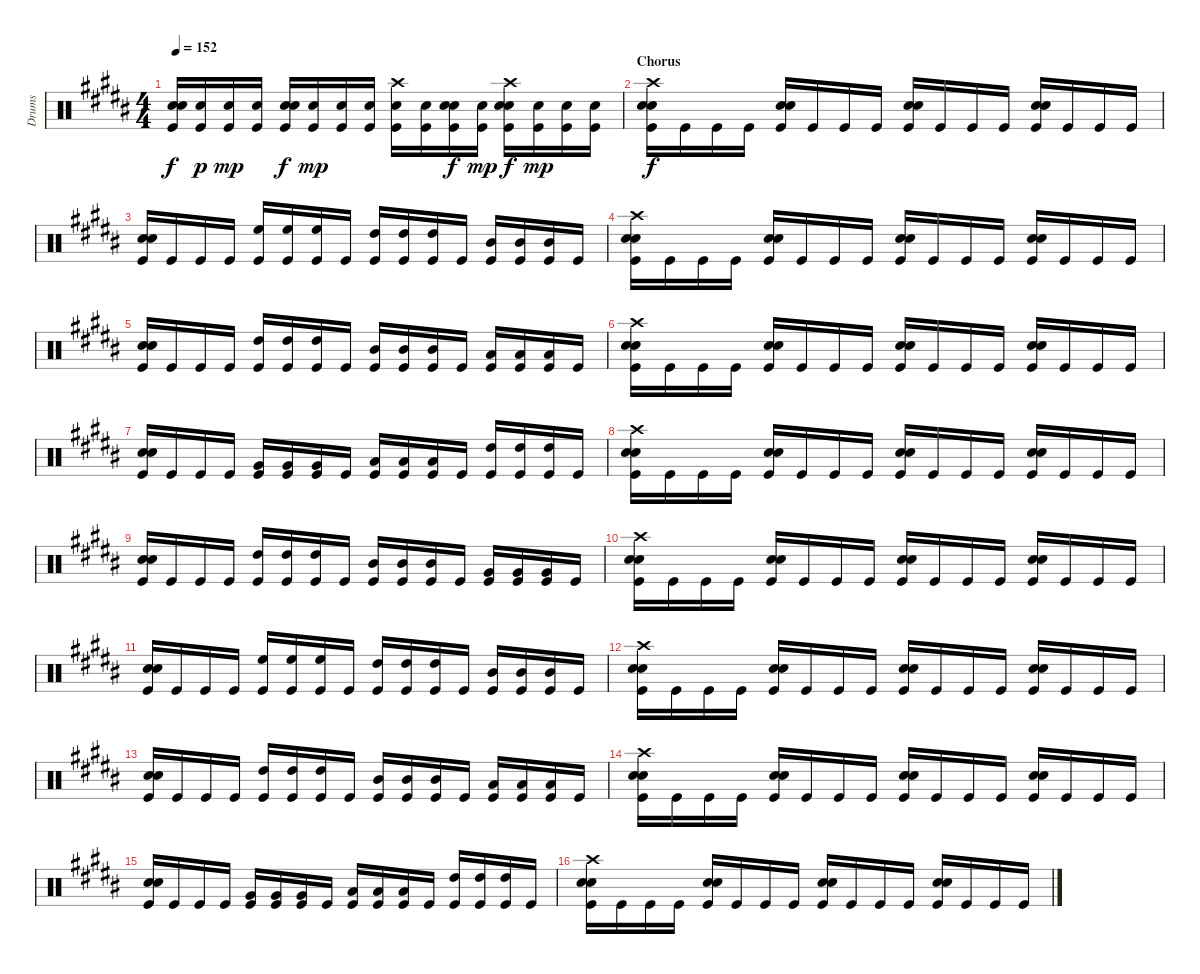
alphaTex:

\track ("Drums" "Drums") {instrument percussion}
\staff {score}
\articulation defaults
\ts (4 4)
\tempo 152
\clef neutral
\ks b
("Electric Snare (hit)" "Snare (hit) 2" "Kick (hit)").16{dy f} ("Snare (hit) 2" "Kick (hit)").16{dy p} ("Snare (hit) 2" "Kick (hit)").16{dy mp} ("Snare (hit) 2" "Kick (hit)").16 ("Electric Snare (hit)" "Snare (hit) 2" "Kick (hit)").16{dy f} ("Snare (hit) 2" "Kick (hit)").16{dy mp} ("Snare (hit) 2" "Kick (hit)").16 ("Snare (hit) 2" "Kick (hit)").16 ("Crash high (hit)" "Snare (hit) 2" "Kick (hit)").16 ("Snare (hit) 2" "Kick (hit)").16 ("Electric Snare (hit)" "Snare (hit) 2" "Kick (hit)").16{dy f} ("Snare (hit) 2" "Kick (hit)").16{dy mp} ("Crash high (hit)" "Electric Snare (hit)" "Snare (hit) 2" "Kick (hit)").16{dy f} ("Snare (hit) 2" "Kick (hit)").16{dy mp} ("Snare (hit) 2" "Kick (hit)").16 ("Snare (hit) 2" "Kick (hit)").16 |
\section ("" "Chorus")
("Crash high (hit)" "Snare (hit) 2" "Electric Snare (hit)" "Kick (hit)").16{dy f} "Kick (hit)".16 "Kick (hit)".16 "Kick (hit)".16 ("Snare (hit) 2" "Electric Snare (hit)" "Kick (hit)").16 "Kick (hit)".16 "Kick (hit)".16 "Kick (hit)".16 ("Snare (hit) 2" "Electric Snare (hit)" "Kick (hit)").16 "Kick (hit)".16 "Kick (hit)".16 "Kick (hit)".16 ("Snare (hit) 2" "Electric Snare (hit)" "Kick (hit)").16 "Kick (hit)".16 "Kick (hit)".16 "Kick (hit)".16 |
("Snare (hit) 2" "Electric Snare (hit)" "Kick (hit)").16 "Kick (hit)".16 "Kick (hit)".16 "Kick (hit)".16 ("High Floor Tom (hit)" "Kick (hit)").16 ("High Floor Tom (hit)" "Kick (hit)").16 ("High Floor Tom (hit)" "Kick (hit)").16 "Kick (hit)".16 ("High Tom (hit)" "Kick (hit)").16 ("High Tom (hit)" "Kick (hit)").16 ("High Tom (hit)" "Kick (hit)").16 "Kick (hit)".16 ("Mid Tom (hit)" "Kick (hit)").16 ("Mid Tom (hit)" "Kick (hit)").16 ("Mid Tom (hit)" "Kick (hit)").16 "Kick (hit)".16 |
("Crash high (hit)" "Snare (hit) 2" "Electric Snare (hit)" "Kick (hit)").16 "Kick (hit)".16 "Kick (hit)".16 "Kick (hit)".16 ("Snare (hit) 2" "Electric Snare (hit)" "Kick (hit)").16 "Kick (hit)".16 "Kick (hit)".16 "Kick (hit)".16 ("Snare (hit) 2" "Electric Snare (hit)" "Kick (hit)").16 "Kick (hit)".16 "Kick (hit)".16 "Kick (hit)".16 ("Snare (hit) 2" "Electric Snare (hit)" "Kick (hit)").16 "Kick (hit)".16 "Kick (hit)".16 "Kick (hit)".16 |
("Snare (hit) 2" "Electric Snare (hit)" "Kick (hit)").16 "Kick (hit)".16 "Kick (hit)".16 "Kick (hit)".16 ("High Tom (hit)" "Kick (hit)").16 ("High Tom (hit)" "Kick (hit)").16 ("High Tom (hit)" "Kick (hit)").16 "Kick (hit)".16 ("Mid Tom (hit)" "Kick (hit)").16 ("Mid Tom (hit)" "Kick (hit)").16 ("Mid Tom (hit)" "Kick (hit)").16 "Kick (hit)".16 ("Low Tom (hit)" "Kick (hit)").16 ("Low Tom (hit)" "Kick (hit)").16 ("Low Tom (hit)" "Kick (hit)").16 "Kick (hit)".16 |
("Crash high (hit)" "Snare (hit) 2" "Electric Snare (hit)" "Kick (hit)").16 "Kick (hit)".16 "Kick (hit)".16 "Kick (hit)".16 ("Snare (hit) 2" "Electric Snare (hit)" "Kick (hit)").16 "Kick (hit)".16 "Kick (hit)".16 "Kick (hit)".16 ("Snare (hit) 2" "Electric Snare (hit)" "Kick (hit)").16 "Kick (hit)".16 "Kick (hit)".16 "Kick (hit)".16 ("Snare (hit) 2" "Electric Snare (hit)" "Kick (hit)").16 "Kick (hit)".16 "Kick (hit)".16 "Kick (hit)".16 |
("Snare (hit) 2" "Electric Snare (hit)" "Kick (hit)").16 "Kick (hit)".16 "Kick (hit)".16 "Kick (hit)".16 ("Very Low Tom (hit)" "Kick (hit)").16 ("Very Low Tom (hit)" "Kick (hit)").16 ("Very Low Tom (hit)" "Kick (hit)").16 "Kick (hit)".16 ("Low Tom (hit)" "Kick (hit)").16 ("Low Tom (hit)" "Kick (hit)").16 ("Low Tom (hit)" "Kick (hit)").16 "Kick (hit)".16 ("High Tom (hit)" "Kick (hit)").16 ("High Tom (hit)" "Kick (hit)").16 ("High Tom (hit)" "Kick (hit)").16 "Kick (hit)".16 |
("Crash high (hit)" "Snare (hit) 2" "Electric Snare (hit)" "Kick (hit)").16 "Kick (hit)".16 "Kick (hit)".16 "Kick (hit)".16 ("Snare (hit) 2" "Electric Snare (hit)" "Kick (hit)").16 "Kick (hit)".16 "Kick (hit)".16 "Kick (hit)".16 ("Snare (hit) 2" "Electric Snare (hit)" "Kick (hit)").16 "Kick (hit)".16 "Kick (hit)".16 "Kick (hit)".16 ("Snare (hit) 2" "Electric Snare (hit)" "Kick (hit)").16 "Kick (hit)".16 "Kick (hit)".16 "Kick (hit)".16 |
("Snare (hit) 2" "Electric Snare (hit)" "Kick (hit)").16 "Kick (hit)".16 "Kick (hit)".16 "Kick (hit)".16 ("High Tom (hit)" "Kick (hit)").16 ("High Tom (hit)" "Kick (hit)").16 ("High Tom (hit)" "Kick (hit)").16 "Kick (hit)".16 ("Mid Tom (hit)" "Kick (hit)").16 ("Mid Tom (hit)" "Kick (hit)").16 ("Mid Tom (hit)" "Kick (hit)").16 "Kick (hit)".16 ("Very Low Tom (hit)" "Kick (hit)").16 ("Very Low Tom (hit)" "Kick (hit)").16 ("Very Low Tom (hit)" "Kick (hit)").16 "Kick (hit)".16 |
("Crash high (hit)" "Snare (hit) 2" "Electric Snare (hit)" "Kick (hit)").16 "Kick (hit)".16 "Kick (hit)".16 "Kick (hit)".16 ("Snare (hit) 2" "Electric Snare (hit)" "Kick (hit)").16 "Kick (hit)".16 "Kick (hit)".16 "Kick (hit)".16 ("Snare (hit) 2" "Electric Snare (hit)" "Kick (hit)").16 "Kick (hit)".16 "Kick (hit)".16 "Kick (hit)".16 ("Snare (hit) 2" "Electric Snare (hit)" "Kick (hit)").16 "Kick (hit)".16 "Kick (hit)".16 "Kick (hit)".16 |
("Snare (hit) 2" "Electric Snare (hit)" "Kick (hit)").16 "Kick (hit)".16 "Kick (hit)".16 "Kick (hit)".16 ("High Floor Tom (hit)" "Kick (hit)").16 ("High Floor Tom (hit)" "Kick (hit)").16 ("High Floor Tom (hit)" "Kick (hit)").16 "Kick (hit)".16 ("High Tom (hit)" "Kick (hit)").16 ("High Tom (hit)" "Kick (hit)").16 ("High Tom (hit)" "Kick (hit)").16 "Kick (hit)".16 ("Mid Tom (hit)" "Kick (hit)").16 ("Mid Tom (hit)" "Kick (hit)").16 ("Mid Tom (hit)" "Kick (hit)").16 "Kick (hit)".16 |
("Crash high (hit)" "Snare (hit) 2" "Electric Snare (hit)" "Kick (hit)").16 "Kick (hit)".16 "Kick (hit)".16 "Kick (hit)".16 ("Snare (hit) 2" "Electric Snare (hit)" "Kick (hit)").16 "Kick (hit)".16 "Kick (hit)".16 "Kick (hit)".16 ("Snare (hit) 2" "Electric Snare (hit)" "Kick (hit)").16 "Kick (hit)".16 "Kick (hit)".16 "Kick (hit)".16 ("Snare (hit) 2" "Electric Snare (hit)" "Kick (hit)").16 "Kick (hit)".16 "Kick (hit)".16 "Kick (hit)".16 |
("Snare (hit) 2" "Electric Snare (hit)" "Kick (hit)").16 "Kick (hit)".16 "Kick (hit)".16 "Kick (hit)".16 ("High Tom (hit)" "Kick (hit)").16 ("High Tom (hit)" "Kick (hit)").16 ("High Tom (hit)" "Kick (hit)").16 "Kick (hit)".16 ("Mid Tom (hit)" "Kick (hit)").16 ("Mid Tom (hit)" "Kick (hit)").16 ("Mid Tom (hit)" "Kick (hit)").16 "Kick (hit)".16 ("Low Tom (hit)" "Kick (hit)").16 ("Low Tom (hit)" "Kick (hit)").16 ("Low Tom (hit)" "Kick (hit)").16 "Kick (hit)".16 |
("Crash high (hit)" "Snare (hit) 2" "Electric Snare (hit)" "Kick (hit)").16 "Kick (hit)".16 "Kick (hit)".16 "Kick (hit)".16 ("Snare (hit) 2" "Electric Snare (hit)" "Kick (hit)").16 "Kick (hit)".16 "Kick (hit)".16 "Kick (hit)".16 ("Snare (hit) 2" "Electric Snare (hit)" "Kick (hit)").16 "Kick (hit)".16 "Kick (hit)".16 "Kick (hit)".16 ("Snare (hit) 2" "Electric Snare (hit)" "Kick (hit)").16 "Kick (hit)".16 "Kick (hit)".16 "Kick (hit)".16 |
("Snare (hit) 2" "Electric Snare (hit)" "Kick (hit)").16 "Kick (hit)".16 "Kick (hit)".16 "Kick (hit)".16 ("Very Low Tom (hit)" "Kick (hit)").16 ("Very Low Tom (hit)" "Kick (hit)").16 ("Very Low Tom (hit)" "Kick (hit)").16 "Kick (hit)".16 ("Low Tom (hit)" "Kick (hit)").16 ("Low Tom (hit)" "Kick (hit)").16 ("Low Tom (hit)" "Kick (hit)").16 "Kick (hit)".16 ("High Tom (hit)" "Kick (hit)").16 ("High Tom (hit)" "Kick (hit)").16 ("High Tom (hit)" "Kick (hit)").16 "Kick (hit)".16 |
("Crash high (hit)" "Snare (hit) 2" "Electric Snare (hit)" "Kick (hit)").16 "Kick (hit)".16 "Kick (hit)".16 "Kick (hit)".16 ("Snare (hit) 2" "Electric Snare (hit)" "Kick (hit)").16 "Kick (hit)".16 "Kick (hit)".16 "Kick (hit)".16 ("Snare (hit) 2" "Electric Snare (hit)" "Kick (hit)").16 "Kick (hit)".16 "Kick (hit)".16 "Kick (hit)".16 ("Snare (hit) 2" "Electric Snare (hit)" "Kick (hit)").16 "Kick (hit)".16 "Kick (hit)".16 "Kick (hit)".16
